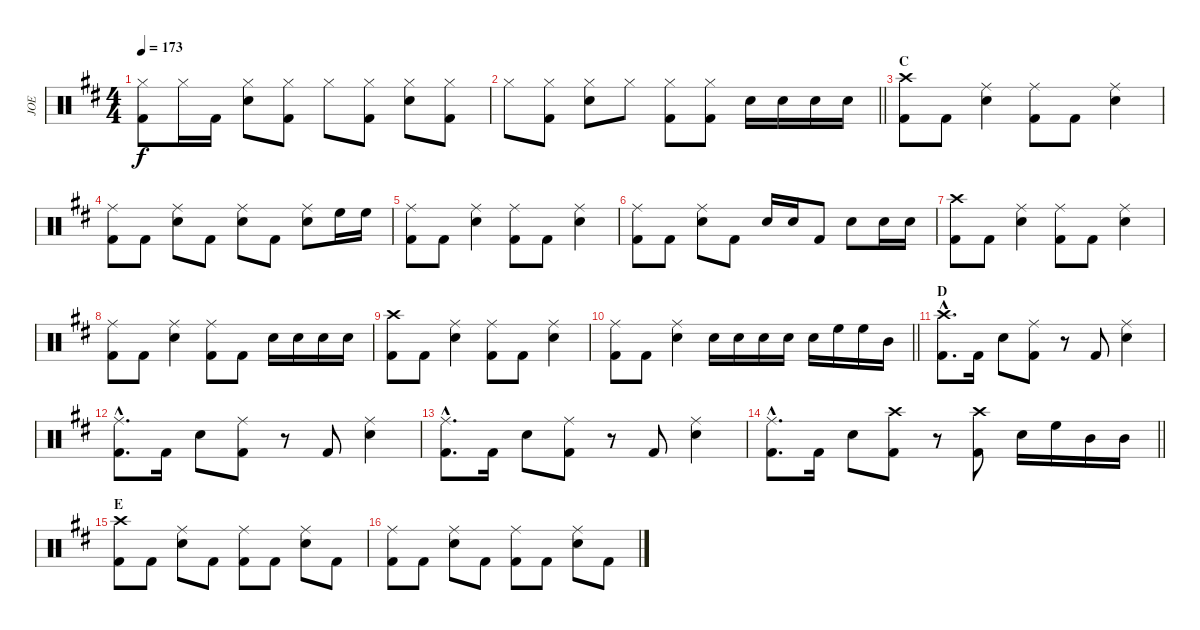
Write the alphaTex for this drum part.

\track ("JOE" "JOE") {instrument percussion}
\staff {score}
\articulation defaults
\ts (4 4)
\tempo 173
\clef neutral
\ks bminor
("Hi-Hat (closed)" "Kick (hit) 2").8{dy f} "Hi-Hat (closed)".16 "Kick (hit) 2".16 ("Hi-Hat (closed)" "Snare (hit) 2").8 ("Hi-Hat (closed)" "Kick (hit) 2").8 "Hi-Hat (closed)".8 ("Hi-Hat (closed)" "Kick (hit) 2").8 ("Hi-Hat (closed)" "Snare (hit) 2").8 ("Hi-Hat (closed)" "Kick (hit) 2").8 |
\barLineRight lightlight "Hi-Hat (closed)".8
("Hi-Hat (closed)" "Kick (hit) 2").8 ("Hi-Hat (closed)" "Snare (hit) 2").8 "Hi-Hat (closed)".8 ("Hi-Hat (closed)" "Kick (hit) 2").8 ("Hi-Hat (closed)" "Kick (hit) 2").8 "Snare (hit) 2".16 "Snare (hit) 2".16 "Snare (hit) 2".16 "Snare (hit) 2".16 |
\section ("" "C")
("Crash high (hit)" "Kick (hit) 2").8 "Kick (hit) 2".8 ("Ride (middle)" "Snare (hit) 2").4 ("Ride (middle)" "Kick (hit) 2").8 "Kick (hit) 2".8 ("Ride (middle)" "Snare (hit) 2").4 |
("Ride (middle)" "Kick (hit) 2").8 "Kick (hit) 2".8 ("Ride (middle)" "Snare (hit) 2").8 "Kick (hit) 2".8 ("Ride (middle)" "Snare (hit) 2").8 "Kick (hit) 2".8 ("Ride (middle)" "Snare (hit) 2").8 "High Floor Tom (hit)".16 "High Floor Tom (hit)".16 |
("Ride (middle)" "Kick (hit) 2").8 "Kick (hit) 2".8 ("Ride (middle)" "Snare (hit) 2").4 ("Ride (middle)" "Kick (hit) 2").8 "Kick (hit) 2".8 ("Ride (middle)" "Snare (hit) 2").4 |
("Ride (middle)" "Kick (hit) 2").8 "Kick (hit) 2".8 ("Ride (middle)" "Snare (hit) 2").8 "Kick (hit) 2".8 "Snare (hit) 2".16 "Snare (hit) 2".16 "Kick (hit) 2".8 "Snare (hit) 2".8 "Snare (hit) 2".16 "Snare (hit) 2".16 |
("Crash high (hit)" "Kick (hit) 2").8 "Kick (hit) 2".8 ("Ride (middle)" "Snare (hit) 2").4 ("Ride (middle)" "Kick (hit) 2").8 "Kick (hit) 2".8 ("Ride (middle)" "Snare (hit) 2").4 |
("Ride (middle)" "Kick (hit) 2").8 "Kick (hit) 2".8 ("Ride (middle)" "Snare (hit) 2").4 ("Ride (middle)" "Kick (hit) 2").8 "Kick (hit) 2".8 "Snare (hit) 2".16 "Snare (hit) 2".16 "Snare (hit) 2".16 "Snare (hit) 2".16 |
("Crash high (hit)" "Kick (hit) 2").8 "Kick (hit) 2".8 ("Ride (middle)" "Snare (hit) 2").4 ("Ride (middle)" "Kick (hit) 2").8 "Kick (hit) 2".8 ("Ride (middle)" "Snare (hit) 2").4 |
\barLineRight lightlight
("Ride (middle)" "Kick (hit) 2").8 "Kick (hit) 2".8 ("Ride (middle)" "Snare (hit) 2").4 "Snare (hit) 2".16 "Snare (hit) 2".16 "Snare (hit) 2".16 "Snare (hit) 2".16 "Snare (hit) 2".16 "High Floor Tom (hit)".16 "High Floor Tom (hit)".16 "Mid Tom (hit)".16 |
\section ("" "D")
("Crash high (hit)"{hac} "Kick (hit) 2"{hac}).8{d} "Kick (hit) 2".16 "Snare (hit) 2".8 ("Ride (middle)" "Kick (hit) 2").8 r.8 "Kick (hit) 2".8 ("Ride (middle)" "Snare (hit) 2").4 |
("Ride (middle)"{hac} "Kick (hit) 2"{hac}).8{d} "Kick (hit) 2".16 "Snare (hit) 2".8 ("Ride (middle)" "Kick (hit) 2").8 r.8 "Kick (hit) 2".8 ("Ride (middle)" "Snare (hit) 2").4 |
("Ride (middle)"{hac} "Kick (hit) 2"{hac}).8{d} "Kick (hit) 2".16 "Snare (hit) 2".8 ("Ride (middle)" "Kick (hit) 2").8 r.8 "Kick (hit) 2".8 ("Ride (middle)" "Snare (hit) 2").4 |
\barLineRight lightlight
("Ride (middle)"{hac} "Kick (hit) 2"{hac}).8{d} "Kick (hit) 2".16 "Snare (hit) 2".8 ("Crash high (hit)" "Kick (hit) 2").8 r.8 ("Crash high (hit)" "Kick (hit) 2").8 "Snare (hit) 2".16 "High Floor Tom (hit)".16 "Mid Tom (hit)".16 "Mid Tom (hit)".16 |
\section ("" "E")
("Crash high (hit)" "Kick (hit) 2").8 "Kick (hit) 2".8 ("Ride (middle)" "Snare (hit) 2").8 "Kick (hit) 2".8 ("Ride (middle)" "Kick (hit) 2").8 "Kick (hit) 2".8 ("Ride (middle)" "Snare (hit) 2").8 "Kick (hit) 2".8 |
("Ride (middle)" "Kick (hit) 2").8 "Kick (hit) 2".8 ("Ride (middle)" "Snare (hit) 2").8 "Kick (hit) 2".8 ("Ride (middle)" "Kick (hit) 2").8 "Kick (hit) 2".8 ("Ride (middle)" "Snare (hit) 2").8 "Kick (hit) 2".8
